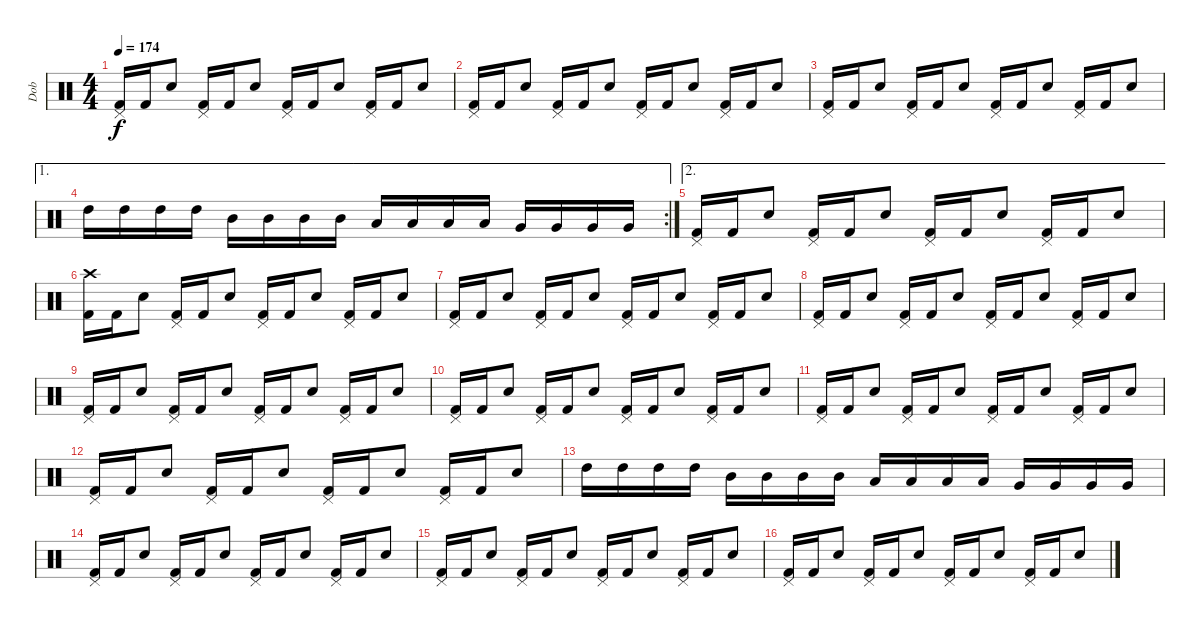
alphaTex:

\track ("Dob" "Dob") {instrument percussion}
\staff {score}
\articulation defaults
\ts (4 4)
\tempo 174
\clef neutral
\ks c
("Pedal Hi-Hat (hit)" "Kick (hit) 2").16{dy f} "Kick (hit) 2".16 "Snare (hit) 2".8 ("Pedal Hi-Hat (hit)" "Kick (hit) 2").16 "Kick (hit) 2".16 "Snare (hit) 2".8 ("Pedal Hi-Hat (hit)" "Kick (hit) 2").16 "Kick (hit) 2".16 "Snare (hit) 2".8 ("Pedal Hi-Hat (hit)" "Kick (hit) 2").16 "Kick (hit) 2".16 "Snare (hit) 2".8 |
("Pedal Hi-Hat (hit)" "Kick (hit) 2").16 "Kick (hit) 2".16 "Snare (hit) 2".8 ("Pedal Hi-Hat (hit)" "Kick (hit) 2").16 "Kick (hit) 2".16 "Snare (hit) 2".8 ("Pedal Hi-Hat (hit)" "Kick (hit) 2").16 "Kick (hit) 2".16 "Snare (hit) 2".8 ("Pedal Hi-Hat (hit)" "Kick (hit) 2").16 "Kick (hit) 2".16 "Snare (hit) 2".8 |
("Pedal Hi-Hat (hit)" "Kick (hit) 2").16 "Kick (hit) 2".16 "Snare (hit) 2".8 ("Pedal Hi-Hat (hit)" "Kick (hit) 2").16 "Kick (hit) 2".16 "Snare (hit) 2".8 ("Pedal Hi-Hat (hit)" "Kick (hit) 2").16 "Kick (hit) 2".16 "Snare (hit) 2".8 ("Pedal Hi-Hat (hit)" "Kick (hit) 2").16 "Kick (hit) 2".16 "Snare (hit) 2".8 |
\ae 1
\rc 2 "High Tom (hit)".16 "High Tom (hit)".16 "High Tom (hit)".16 "High Tom (hit)".16 "Mid Tom (hit)".16 "Mid Tom (hit)".16 "Mid Tom (hit)".16 "Mid Tom (hit)".16 "Low Tom (hit)".16 "Low Tom (hit)".16 "Low Tom (hit)".16 "Low Tom (hit)".16 "Very Low Tom (hit)".16 "Very Low Tom (hit)".16 "Very Low Tom (hit)".16 "Very Low Tom (hit)".16
|
\ae 2
("Pedal Hi-Hat (hit)" "Kick (hit) 2").16 "Kick (hit) 2".16 "Snare (hit) 2".8 ("Pedal Hi-Hat (hit)" "Kick (hit) 2").16 "Kick (hit) 2".16 "Snare (hit) 2".8 ("Pedal Hi-Hat (hit)" "Kick (hit) 2").16 "Kick (hit) 2".16 "Snare (hit) 2".8 ("Pedal Hi-Hat (hit)" "Kick (hit) 2").16 "Kick (hit) 2".16 "Snare (hit) 2".8 |
("Crash high (hit)" "Kick (hit) 2").16 "Kick (hit) 2".16 "Snare (hit) 2".8 ("Pedal Hi-Hat (hit)" "Kick (hit) 2").16 "Kick (hit) 2".16 "Snare (hit) 2".8 ("Pedal Hi-Hat (hit)" "Kick (hit) 2").16 "Kick (hit) 2".16 "Snare (hit) 2".8 ("Pedal Hi-Hat (hit)" "Kick (hit) 2").16 "Kick (hit) 2".16 "Snare (hit) 2".8 |
("Pedal Hi-Hat (hit)" "Kick (hit) 2").16 "Kick (hit) 2".16 "Snare (hit) 2".8 ("Pedal Hi-Hat (hit)" "Kick (hit) 2").16 "Kick (hit) 2".16 "Snare (hit) 2".8 ("Pedal Hi-Hat (hit)" "Kick (hit) 2").16 "Kick (hit) 2".16 "Snare (hit) 2".8 ("Pedal Hi-Hat (hit)" "Kick (hit) 2").16 "Kick (hit) 2".16 "Snare (hit) 2".8 |
("Pedal Hi-Hat (hit)" "Kick (hit) 2").16 "Kick (hit) 2".16 "Snare (hit) 2".8 ("Pedal Hi-Hat (hit)" "Kick (hit) 2").16 "Kick (hit) 2".16 "Snare (hit) 2".8 ("Pedal Hi-Hat (hit)" "Kick (hit) 2").16 "Kick (hit) 2".16 "Snare (hit) 2".8 ("Pedal Hi-Hat (hit)" "Kick (hit) 2").16 "Kick (hit) 2".16 "Snare (hit) 2".8 |
("Pedal Hi-Hat (hit)" "Kick (hit) 2").16 "Kick (hit) 2".16 "Snare (hit) 2".8 ("Pedal Hi-Hat (hit)" "Kick (hit) 2").16 "Kick (hit) 2".16 "Snare (hit) 2".8 ("Pedal Hi-Hat (hit)" "Kick (hit) 2").16 "Kick (hit) 2".16 "Snare (hit) 2".8 ("Pedal Hi-Hat (hit)" "Kick (hit) 2").16 "Kick (hit) 2".16 "Snare (hit) 2".8 |
("Pedal Hi-Hat (hit)" "Kick (hit) 2").16 "Kick (hit) 2".16 "Snare (hit) 2".8 ("Pedal Hi-Hat (hit)" "Kick (hit) 2").16 "Kick (hit) 2".16 "Snare (hit) 2".8 ("Pedal Hi-Hat (hit)" "Kick (hit) 2").16 "Kick (hit) 2".16 "Snare (hit) 2".8 ("Pedal Hi-Hat (hit)" "Kick (hit) 2").16 "Kick (hit) 2".16 "Snare (hit) 2".8 |
("Pedal Hi-Hat (hit)" "Kick (hit) 2").16 "Kick (hit) 2".16 "Snare (hit) 2".8 ("Pedal Hi-Hat (hit)" "Kick (hit) 2").16 "Kick (hit) 2".16 "Snare (hit) 2".8 ("Pedal Hi-Hat (hit)" "Kick (hit) 2").16 "Kick (hit) 2".16 "Snare (hit) 2".8 ("Pedal Hi-Hat (hit)" "Kick (hit) 2").16 "Kick (hit) 2".16 "Snare (hit) 2".8 |
("Pedal Hi-Hat (hit)" "Kick (hit) 2").16 "Kick (hit) 2".16 "Snare (hit) 2".8 ("Pedal Hi-Hat (hit)" "Kick (hit) 2").16 "Kick (hit) 2".16 "Snare (hit) 2".8 ("Pedal Hi-Hat (hit)" "Kick (hit) 2").16 "Kick (hit) 2".16 "Snare (hit) 2".8 ("Pedal Hi-Hat (hit)" "Kick (hit) 2").16 "Kick (hit) 2".16 "Snare (hit) 2".8 |
"High Tom (hit)".16 "High Tom (hit)".16 "High Tom (hit)".16 "High Tom (hit)".16 "Mid Tom (hit)".16 "Mid Tom (hit)".16 "Mid Tom (hit)".16 "Mid Tom (hit)".16 "Low Tom (hit)".16 "Low Tom (hit)".16 "Low Tom (hit)".16 "Low Tom (hit)".16 "Very Low Tom (hit)".16 "Very Low Tom (hit)".16 "Very Low Tom (hit)".16 "Very Low Tom (hit)".16 |
("Pedal Hi-Hat (hit)" "Kick (hit) 2").16 "Kick (hit) 2".16 "Snare (hit) 2".8 ("Pedal Hi-Hat (hit)" "Kick (hit) 2").16 "Kick (hit) 2".16 "Snare (hit) 2".8 ("Pedal Hi-Hat (hit)" "Kick (hit) 2").16 "Kick (hit) 2".16 "Snare (hit) 2".8 ("Pedal Hi-Hat (hit)" "Kick (hit) 2").16 "Kick (hit) 2".16 "Snare (hit) 2".8 |
("Pedal Hi-Hat (hit)" "Kick (hit) 2").16 "Kick (hit) 2".16 "Snare (hit) 2".8 ("Pedal Hi-Hat (hit)" "Kick (hit) 2").16 "Kick (hit) 2".16 "Snare (hit) 2".8 ("Pedal Hi-Hat (hit)" "Kick (hit) 2").16 "Kick (hit) 2".16 "Snare (hit) 2".8 ("Pedal Hi-Hat (hit)" "Kick (hit) 2").16 "Kick (hit) 2".16 "Snare (hit) 2".8 |
("Pedal Hi-Hat (hit)" "Kick (hit) 2").16 "Kick (hit) 2".16 "Snare (hit) 2".8 ("Pedal Hi-Hat (hit)" "Kick (hit) 2").16 "Kick (hit) 2".16 "Snare (hit) 2".8 ("Pedal Hi-Hat (hit)" "Kick (hit) 2").16 "Kick (hit) 2".16 "Snare (hit) 2".8 ("Pedal Hi-Hat (hit)" "Kick (hit) 2").16 "Kick (hit) 2".16 "Snare (hit) 2".8
